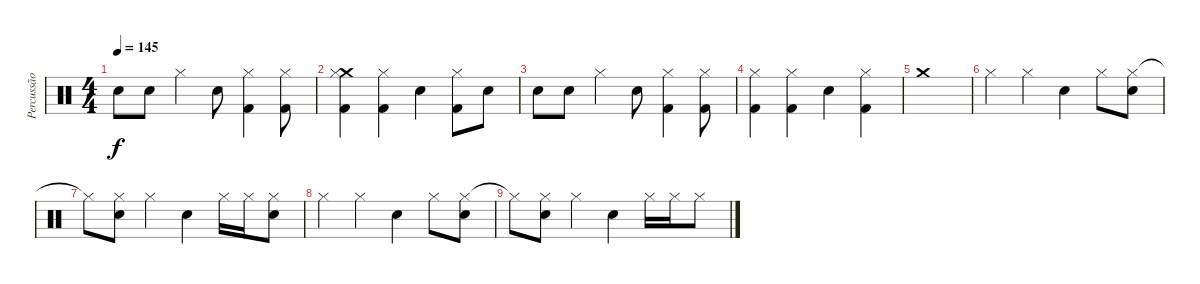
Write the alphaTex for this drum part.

\track ("Percussão" "Percussão") {instrument percussion}
\staff {score}
\articulation defaults
\ts (4 4)
\tempo 145
\clef neutral
\ks c "Snare (hit) 2".8{dy f} "Snare (hit) 2".8 "Hi-Hat (closed)".4 "Snare (hit) 2".8
("Hi-Hat (closed)" "Kick (hit) 2").4 ("Hi-Hat (closed)" "Kick (hit) 2").8 |
("Crash medium (hit)" "Hi-Hat (closed)" "Kick (hit) 2").4 ("Hi-Hat (closed)" "Kick (hit) 2").4 "Snare (hit) 2".4 ("Hi-Hat (closed)" "Kick (hit) 2").8 "Snare (hit) 2".8 |
"Snare (hit) 2".8 "Snare (hit) 2".8 "Hi-Hat (closed)".4 "Snare (hit) 2".8 ("Hi-Hat (closed)" "Kick (hit) 2").4 ("Hi-Hat (closed)" "Kick (hit) 2").8 |
("Hi-Hat (closed)" "Kick (hit) 2").4 ("Hi-Hat (closed)" "Kick (hit) 2").4 "Snare (hit) 2".4 ("Hi-Hat (closed)" "Kick (hit) 2").4 |
"Crash medium (hit)".1 |
"Hi-Hat (closed)".4{volume 2} "Hi-Hat (closed)".4 "Snare (hit) 2".4 "Hi-Hat (closed)".8 ("Hi-Hat (closed)" "Snare (hit) 2").8 |
"Hi-Hat (closed)"{t}.8 ("Hi-Hat (closed)" "Snare (hit) 2").8 "Hi-Hat (closed)".4 "Snare (hit) 2".4 "Hi-Hat (closed)".16 "Hi-Hat (closed)".16 ("Hi-Hat (closed)" "Snare (hit) 2").8 |
"Hi-Hat (closed)".4 "Hi-Hat (closed)".4 "Snare (hit) 2".4 "Hi-Hat (closed)".8 ("Hi-Hat (closed)" "Snare (hit) 2").8 |
"Hi-Hat (closed)"{t}.8 ("Hi-Hat (closed)" "Snare (hit) 2").8 "Hi-Hat (closed)".4 "Snare (hit) 2".4 "Hi-Hat (closed)".16 "Hi-Hat (closed)".16 "Hi-Hat (closed)".8
